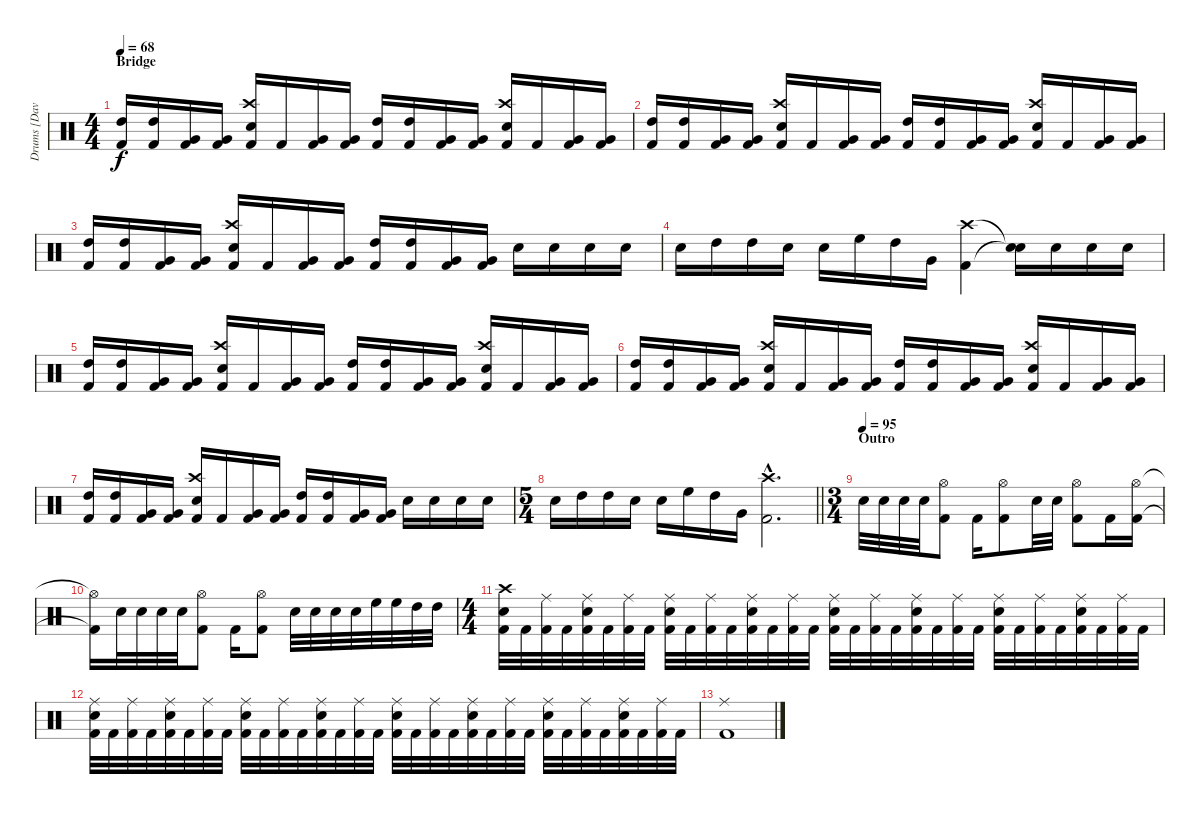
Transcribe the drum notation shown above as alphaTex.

\track ("Drums [Dave Lombardo]" "Drums [Dav") {instrument percussion}
\staff {score}
\articulation defaults
\ts (4 4)
\section ("" "Bridge")
\tempo 68
\clef neutral
\ks c
("High Tom (hit)" "Kick (hit) 2").16{dy f} ("High Tom (hit)" "Kick (hit) 2").16 ("Very Low Tom (hit)" "Kick (hit) 2").16 ("Very Low Tom (hit)" "Kick (hit) 2").16 ("Crash high (hit)" "Electric Snare (hit)" "Kick (hit) 2").16 "Kick (hit) 2".16 ("Very Low Tom (hit)" "Kick (hit) 2").16 ("Very Low Tom (hit)" "Kick (hit) 2").16 ("High Tom (hit)" "Kick (hit) 2").16 ("High Tom (hit)" "Kick (hit) 2").16 ("Very Low Tom (hit)" "Kick (hit) 2").16 ("Very Low Tom (hit)" "Kick (hit) 2").16 ("Crash high (hit)" "Electric Snare (hit)" "Kick (hit) 2").16 "Kick (hit) 2".16 ("Very Low Tom (hit)" "Kick (hit) 2").16 ("Very Low Tom (hit)" "Kick (hit) 2").16 |
("High Tom (hit)" "Kick (hit) 2").16 ("High Tom (hit)" "Kick (hit) 2").16 ("Very Low Tom (hit)" "Kick (hit) 2").16 ("Very Low Tom (hit)" "Kick (hit) 2").16 ("Crash high (hit)" "Electric Snare (hit)" "Kick (hit) 2").16 "Kick (hit) 2".16 ("Very Low Tom (hit)" "Kick (hit) 2").16 ("Very Low Tom (hit)" "Kick (hit) 2").16 ("High Tom (hit)" "Kick (hit) 2").16 ("High Tom (hit)" "Kick (hit) 2").16 ("Very Low Tom (hit)" "Kick (hit) 2").16 ("Very Low Tom (hit)" "Kick (hit) 2").16 ("Crash high (hit)" "Electric Snare (hit)" "Kick (hit) 2").16 "Kick (hit) 2".16 ("Very Low Tom (hit)" "Kick (hit) 2").16 ("Very Low Tom (hit)" "Kick (hit) 2").16 |
("High Tom (hit)" "Kick (hit) 2").16 ("High Tom (hit)" "Kick (hit) 2").16 ("Very Low Tom (hit)" "Kick (hit) 2").16 ("Very Low Tom (hit)" "Kick (hit) 2").16 ("Crash high (hit)" "Electric Snare (hit)" "Kick (hit) 2").16 "Kick (hit) 2".16 ("Very Low Tom (hit)" "Kick (hit) 2").16 ("Very Low Tom (hit)" "Kick (hit) 2").16 ("High Tom (hit)" "Kick (hit) 2").16 ("High Tom (hit)" "Kick (hit) 2").16 ("Very Low Tom (hit)" "Kick (hit) 2").16 ("Very Low Tom (hit)" "Kick (hit) 2").16 "Electric Snare (hit)".16 "Electric Snare (hit)".16 "Electric Snare (hit)".16 "Electric Snare (hit)".16 |
"Electric Snare (hit)".16 "High Tom (hit)".16 "High Tom (hit)".16 "Electric Snare (hit)".16 "Electric Snare (hit)".16 "High Floor Tom (hit)".16 "High Tom (hit)".16 "Very Low Tom (hit)".16 ("Crash high (hit)" "Kick (hit) 2").4 ("Snare (hit)"{t} "Snare (hit)"{t}).16 "Electric Snare (hit)".16 "Electric Snare (hit)".16 "Electric Snare (hit)".16 |
("High Tom (hit)" "Kick (hit) 2").16 ("High Tom (hit)" "Kick (hit) 2").16 ("Very Low Tom (hit)" "Kick (hit) 2").16 ("Very Low Tom (hit)" "Kick (hit) 2").16 ("Crash high (hit)" "Electric Snare (hit)" "Kick (hit) 2").16 "Kick (hit) 2".16 ("Very Low Tom (hit)" "Kick (hit) 2").16 ("Very Low Tom (hit)" "Kick (hit) 2").16 ("High Tom (hit)" "Kick (hit) 2").16 ("High Tom (hit)" "Kick (hit) 2").16 ("Very Low Tom (hit)" "Kick (hit) 2").16 ("Very Low Tom (hit)" "Kick (hit) 2").16 ("Crash high (hit)" "Electric Snare (hit)" "Kick (hit) 2").16 "Kick (hit) 2".16 ("Very Low Tom (hit)" "Kick (hit) 2").16 ("Very Low Tom (hit)" "Kick (hit) 2").16 |
("High Tom (hit)" "Kick (hit) 2").16 ("High Tom (hit)" "Kick (hit) 2").16 ("Very Low Tom (hit)" "Kick (hit) 2").16 ("Very Low Tom (hit)" "Kick (hit) 2").16 ("Crash high (hit)" "Electric Snare (hit)" "Kick (hit) 2").16 "Kick (hit) 2".16 ("Very Low Tom (hit)" "Kick (hit) 2").16 ("Very Low Tom (hit)" "Kick (hit) 2").16 ("High Tom (hit)" "Kick (hit) 2").16 ("High Tom (hit)" "Kick (hit) 2").16 ("Very Low Tom (hit)" "Kick (hit) 2").16 ("Very Low Tom (hit)" "Kick (hit) 2").16 ("Crash high (hit)" "Electric Snare (hit)" "Kick (hit) 2").16 "Kick (hit) 2".16 ("Very Low Tom (hit)" "Kick (hit) 2").16 ("Very Low Tom (hit)" "Kick (hit) 2").16 |
("High Tom (hit)" "Kick (hit) 2").16 ("High Tom (hit)" "Kick (hit) 2").16 ("Very Low Tom (hit)" "Kick (hit) 2").16 ("Very Low Tom (hit)" "Kick (hit) 2").16 ("Crash high (hit)" "Electric Snare (hit)" "Kick (hit) 2").16 "Kick (hit) 2".16 ("Very Low Tom (hit)" "Kick (hit) 2").16 ("Very Low Tom (hit)" "Kick (hit) 2").16 ("High Tom (hit)" "Kick (hit) 2").16 ("High Tom (hit)" "Kick (hit) 2").16 ("Very Low Tom (hit)" "Kick (hit) 2").16 ("Very Low Tom (hit)" "Kick (hit) 2").16 "Electric Snare (hit)".16 "Electric Snare (hit)".16 "Electric Snare (hit)".16 "Electric Snare (hit)".16 |
\ts (5 4)
\barLineRight lightlight "Electric Snare (hit)".16 "High Tom (hit)".16 "High Tom (hit)".16 "Electric Snare (hit)".16 "Electric Snare (hit)".16 "High Floor Tom (hit)".16 "High Tom (hit)".16 "Very Low Tom (hit)".16
("Crash high (hit)"{hac} "Kick (hit) 2"{hac}).2{d} |
\ts (3 4)
\section ("" "Outro")
\tempo (95)
"Electric Snare (hit)".32 "Electric Snare (hit)".32 "Electric Snare (hit)".32 "Electric Snare (hit)".32 ("Hi-Hat (open)" "Kick (hit) 2").8 "Kick (hit) 2".16 ("Hi-Hat (open)" "Kick (hit) 2").8 "Electric Snare (hit)".32 "Electric Snare (hit)".32 ("Hi-Hat (open)" "Kick (hit) 2").8 "Kick (hit) 2".16 ("Hi-Hat (open)" "Kick (hit) 2").16 |
("Hi-Hat (open)"{t} "Kick (hit) 2"{t}).16 "Electric Snare (hit)".32 "Electric Snare (hit)".32 "Electric Snare (hit)".32 "Electric Snare (hit)".32 ("Hi-Hat (open)" "Kick (hit) 2").8 "Kick (hit) 2".16 ("Hi-Hat (open)" "Kick (hit) 2").8 "Electric Snare (hit)".32 "Electric Snare (hit)".32 "Electric Snare (hit)".32 "Electric Snare (hit)".32 "High Floor Tom (hit)".32 "High Floor Tom (hit)".32 "High Tom (hit)".32 "High Tom (hit)".32 |
\ts (4 4)
("Crash high (hit)" "Electric Snare (hit)" "Kick (hit) 2").32 "Kick (hit) 2".32 ("Ride (middle)" "Kick (hit) 2").32 "Kick (hit) 2".32 ("Ride (middle)" "Electric Snare (hit)" "Kick (hit) 2").32 "Kick (hit) 2".32 ("Ride (middle)" "Kick (hit) 2").32 "Kick (hit) 2".32 ("Ride (middle)" "Electric Snare (hit)" "Kick (hit) 2").32 "Kick (hit) 2".32 ("Ride (middle)" "Kick (hit) 2").32 "Kick (hit) 2".32 ("Ride (middle)" "Electric Snare (hit)" "Kick (hit) 2").32 "Kick (hit) 2".32 ("Ride (middle)" "Kick (hit) 2").32 "Kick (hit) 2".32 ("Ride (middle)" "Electric Snare (hit)" "Kick (hit) 2").32 "Kick (hit) 2".32 ("Ride (middle)" "Kick (hit) 2").32 "Kick (hit) 2".32 ("Ride (middle)" "Electric Snare (hit)" "Kick (hit) 2").32 "Kick (hit) 2".32 ("Ride (middle)" "Kick (hit) 2").32 "Kick (hit) 2".32 ("Ride (middle)" "Electric Snare (hit)" "Kick (hit) 2").32 "Kick (hit) 2".32 ("Ride (middle)" "Kick (hit) 2").32 "Kick (hit) 2".32 ("Ride (middle)" "Electric Snare (hit)" "Kick (hit) 2").32 "Kick (hit) 2".32 ("Ride (middle)" "Kick (hit) 2").32 "Kick (hit) 2".32 |
("Ride (middle)" "Electric Snare (hit)" "Kick (hit) 2").32 "Kick (hit) 2".32 ("Ride (middle)" "Kick (hit) 2").32 "Kick (hit) 2".32 ("Ride (middle)" "Electric Snare (hit)" "Kick (hit) 2").32 "Kick (hit) 2".32 ("Ride (middle)" "Kick (hit) 2").32 "Kick (hit) 2".32 ("Ride (middle)" "Electric Snare (hit)" "Kick (hit) 2").32 "Kick (hit) 2".32 ("Ride (middle)" "Kick (hit) 2").32 "Kick (hit) 2".32 ("Ride (middle)" "Electric Snare (hit)" "Kick (hit) 2").32 "Kick (hit) 2".32 ("Ride (middle)" "Kick (hit) 2").32 "Kick (hit) 2".32 ("Ride (middle)" "Electric Snare (hit)" "Kick (hit) 2").32 "Kick (hit) 2".32 ("Ride (middle)" "Kick (hit) 2").32 "Kick (hit) 2".32 ("Ride (middle)" "Electric Snare (hit)" "Kick (hit) 2").32 "Kick (hit) 2".32 ("Ride (middle)" "Kick (hit) 2").32 "Kick (hit) 2".32 ("Ride (middle)" "Electric Snare (hit)" "Kick (hit) 2").32 "Kick (hit) 2".32 ("Ride (middle)" "Kick (hit) 2").32 "Kick (hit) 2".32 ("Ride (middle)" "Electric Snare (hit)" "Kick (hit) 2").32 "Kick (hit) 2".32 ("Ride (middle)" "Kick (hit) 2").32 "Kick (hit) 2".32 |
("Ride (middle)" "Kick (hit) 2").1
